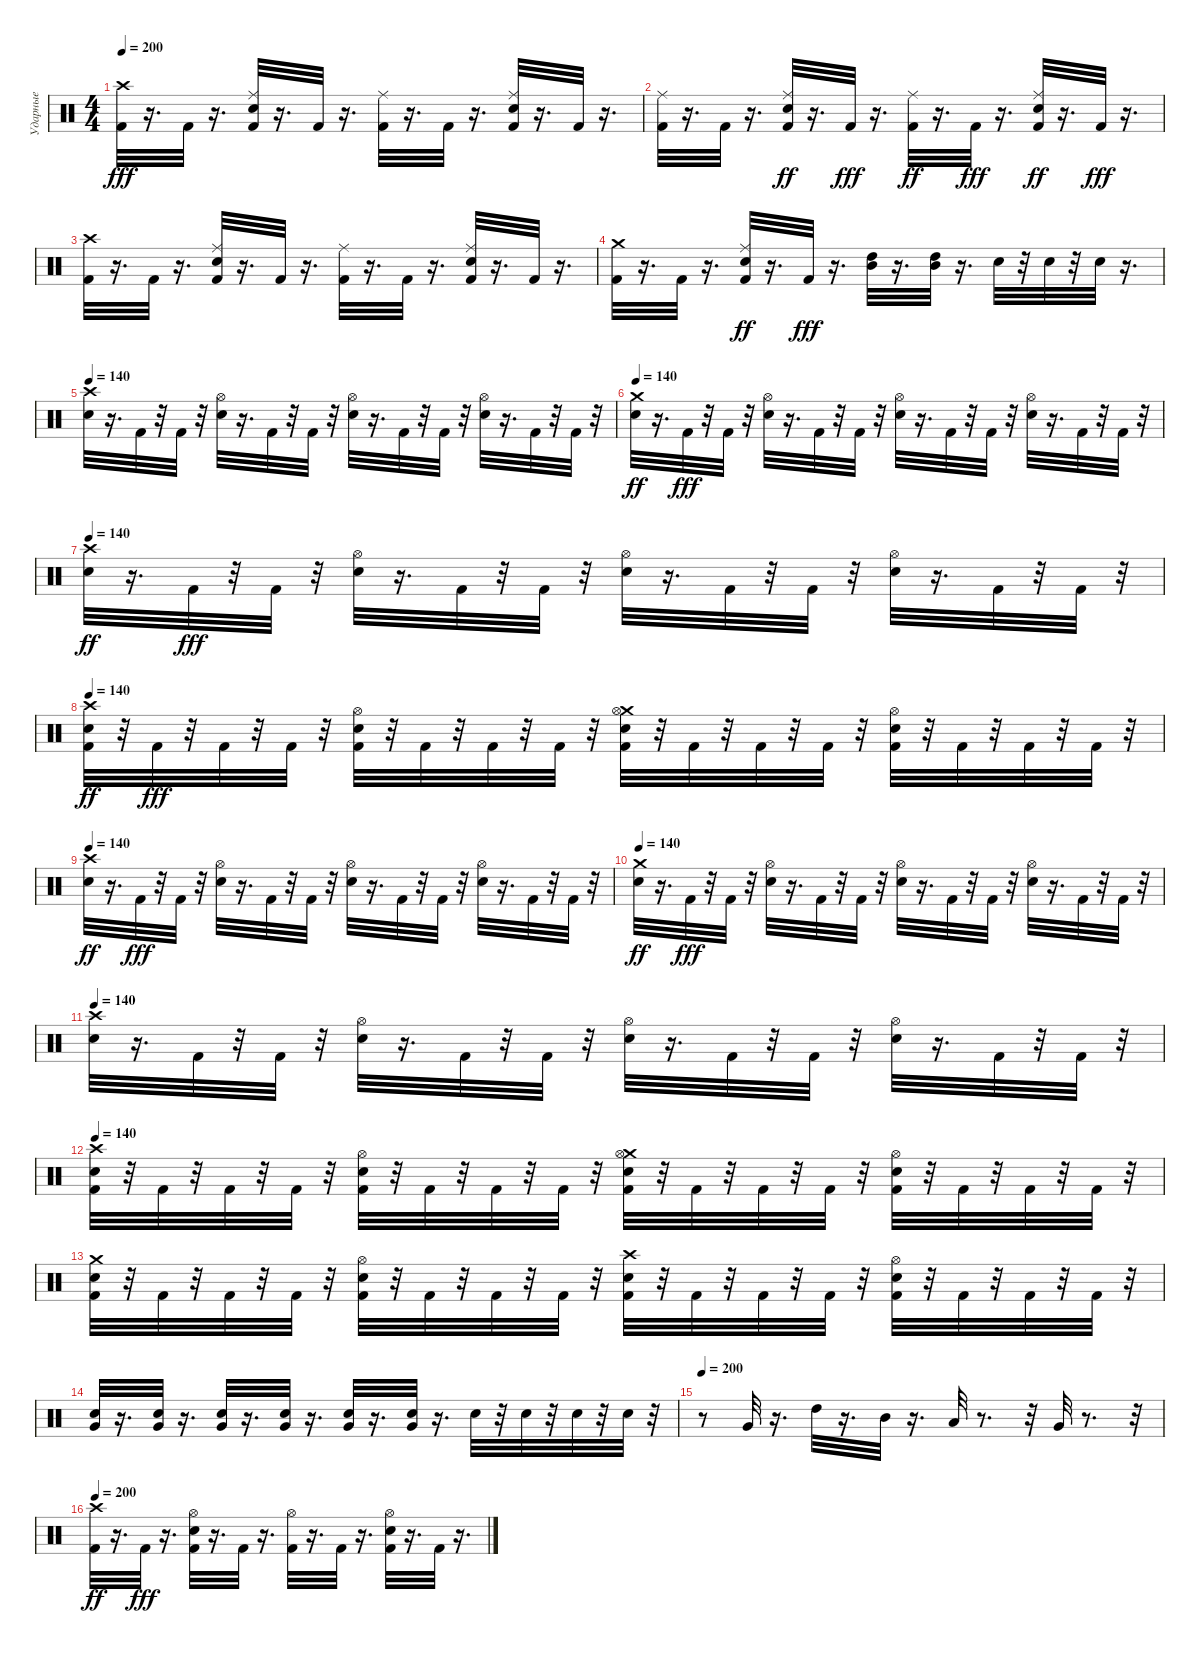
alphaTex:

\track ("Ударные" "Ударные") {instrument percussion}
\staff {score}
\articulation defaults
\ts (4 4)
\tempo 200
\clef neutral
\ks c
("Crash high (hit)" "Kick (hit) 2").32{dy fff} r.16{d} "Kick (hit) 2".32 r.16{d} ("Kick (hit) 2" "Ride (middle)" "Snare (hit) 2").32 r.16{d} "Kick (hit) 2".32 r.16{d} ("Ride (middle)" "Kick (hit) 2").32 r.16{d} "Kick (hit) 2".32 r.16{d} ("Kick (hit) 2" "Ride (middle)" "Snare (hit) 2").32 r.16{d} "Kick (hit) 2".32 r.16{d} |
("Ride (middle)" "Kick (hit) 2").32 r.16{d} "Kick (hit) 2".32 r.16{d} ("Kick (hit) 2" "Snare (hit) 2" "Ride (middle)").32{dy ff} r.16{d} "Kick (hit) 2".32{dy fff} r.16{d} ("Kick (hit) 2" "Ride (middle)").32{dy ff} r.16{d} "Kick (hit) 2".32{dy fff} r.16{d} ("Kick (hit) 2" "Snare (hit) 2" "Ride (middle)").32{dy ff} r.16{d} "Kick (hit) 2".32{dy fff} r.16{d} |
("Crash high (hit)" "Kick (hit) 2").32 r.16{d} "Kick (hit) 2".32 r.16{d} ("Kick (hit) 2" "Ride (middle)" "Snare (hit) 2").32 r.16{d} "Kick (hit) 2".32 r.16{d} ("Ride (middle)" "Kick (hit) 2").32 r.16{d} "Kick (hit) 2".32 r.16{d} ("Kick (hit) 2" "Ride (middle)" "Snare (hit) 2").32 r.16{d} "Kick (hit) 2".32 r.16{d} |
("Crash medium (hit)" "Kick (hit) 2").32 r.16{d} "Kick (hit) 2".32 r.16{d} ("Kick (hit) 2" "Snare (hit) 2" "Ride (middle)").32{dy ff} r.16{d} "Kick (hit) 2".32{dy fff} r.16{d} ("High Tom (hit)" "Mid Tom (hit)").32 r.16{d} ("Mid Tom (hit)" "High Tom (hit)").32 r.16{d} "Snare (hit) 2".32 r.32 "Snare (hit) 2".32 r.32 "Snare (hit) 2".32 r.16{d} |
\tempo 140
("Crash high (hit)" "Snare (hit) 2").32 r.16{d} "Kick (hit) 2".32 r.32 "Kick (hit) 2".32 r.32 ("Hi-Hat (open)" "Snare (hit) 2").32 r.16{d} "Kick (hit) 2".32 r.32 "Kick (hit) 2".32 r.32 ("Snare (hit) 2" "Hi-Hat (open)").32 r.16{d} "Kick (hit) 2".32 r.32 "Kick (hit) 2".32 r.32 ("Snare (hit) 2" "Hi-Hat (open)").32 r.16{d} "Kick (hit) 2".32 r.32 "Kick (hit) 2".32 r.32 |
\tempo 140
("Snare (hit) 2" "Crash medium (hit)").32{dy ff} r.16{d} "Kick (hit) 2".32{dy fff} r.32 "Kick (hit) 2".32 r.32 ("Hi-Hat (open)" "Snare (hit) 2").32 r.16{d} "Kick (hit) 2".32 r.32 "Kick (hit) 2".32 r.32 ("Snare (hit) 2" "Hi-Hat (open)").32 r.16{d} "Kick (hit) 2".32 r.32 "Kick (hit) 2".32 r.32 ("Hi-Hat (open)" "Snare (hit) 2").32 r.16{d} "Kick (hit) 2".32 r.32 "Kick (hit) 2".32 r.32 |
\tempo 140
("Snare (hit) 2" "Crash high (hit)").32{dy ff} r.16{d} "Kick (hit) 2".32{dy fff} r.32 "Kick (hit) 2".32 r.32 ("Hi-Hat (open)" "Snare (hit) 2").32 r.16{d} "Kick (hit) 2".32 r.32 "Kick (hit) 2".32 r.32 ("Snare (hit) 2" "Hi-Hat (open)").32 r.16{d} "Kick (hit) 2".32 r.32 "Kick (hit) 2".32 r.32 ("Hi-Hat (open)" "Snare (hit) 2").32 r.16{d} "Kick (hit) 2".32 r.32 "Kick (hit) 2".32 r.32 |
\tempo 140
("Kick (hit) 2" "Snare (hit) 2" "Crash high (hit)").32{dy ff} r.32 "Kick (hit) 2".32{dy fff} r.32 "Kick (hit) 2".32 r.32 "Kick (hit) 2".32 r.32 ("Hi-Hat (open)" "Snare (hit) 2" "Kick (hit) 2").32 r.32 "Kick (hit) 2".32 r.32 "Kick (hit) 2".32 r.32 "Kick (hit) 2".32 r.32 ("Crash medium (hit)" "Kick (hit) 2" "Hi-Hat (open)" "Snare (hit) 2").32 r.32 "Kick (hit) 2".32 r.32 "Kick (hit) 2".32 r.32 "Kick (hit) 2".32 r.32 ("Kick (hit) 2" "Snare (hit) 2" "Hi-Hat (open)").32 r.32 "Kick (hit) 2".32 r.32 "Kick (hit) 2".32 r.32 "Kick (hit) 2".32 r.32 |
\tempo 140
("Snare (hit) 2" "Crash high (hit)").32{dy ff} r.16{d} "Kick (hit) 2".32{dy fff} r.32 "Kick (hit) 2".32 r.32 ("Hi-Hat (open)" "Snare (hit) 2").32 r.16{d} "Kick (hit) 2".32 r.32 "Kick (hit) 2".32 r.32 ("Snare (hit) 2" "Hi-Hat (open)").32 r.16{d} "Kick (hit) 2".32 r.32 "Kick (hit) 2".32 r.32 ("Hi-Hat (open)" "Snare (hit) 2").32 r.16{d} "Kick (hit) 2".32 r.32 "Kick (hit) 2".32 r.32 |
\tempo 140
("Snare (hit) 2" "Crash medium (hit)").32{dy ff} r.16{d} "Kick (hit) 2".32{dy fff} r.32 "Kick (hit) 2".32 r.32 ("Snare (hit) 2" "Hi-Hat (open)").32 r.16{d} "Kick (hit) 2".32 r.32 "Kick (hit) 2".32 r.32 ("Hi-Hat (open)" "Snare (hit) 2").32 r.16{d} "Kick (hit) 2".32 r.32 "Kick (hit) 2".32 r.32 ("Snare (hit) 2" "Hi-Hat (open)").32 r.16{d} "Kick (hit) 2".32 r.32 "Kick (hit) 2".32 r.32 |
\tempo 140
("Crash high (hit)" "Snare (hit) 2").32 r.16{d} "Kick (hit) 2".32 r.32 "Kick (hit) 2".32 r.32 ("Snare (hit) 2" "Hi-Hat (open)").32 r.16{d} "Kick (hit) 2".32 r.32 "Kick (hit) 2".32 r.32 ("Hi-Hat (open)" "Snare (hit) 2").32 r.16{d} "Kick (hit) 2".32 r.32 "Kick (hit) 2".32 r.32 ("Hi-Hat (open)" "Snare (hit) 2").32 r.16{d} "Kick (hit) 2".32 r.32 "Kick (hit) 2".32 r.32 |
\tempo 140
("Kick (hit) 2" "Crash high (hit)" "Snare (hit) 2").32 r.32 "Kick (hit) 2".32 r.32 "Kick (hit) 2".32 r.32 "Kick (hit) 2".32 r.32 ("Hi-Hat (open)" "Kick (hit) 2" "Snare (hit) 2").32 r.32 "Kick (hit) 2".32 r.32 "Kick (hit) 2".32 r.32 "Kick (hit) 2".32 r.32 ("Snare (hit) 2" "Crash medium (hit)" "Kick (hit) 2" "Hi-Hat (open)").32 r.32 "Kick (hit) 2".32 r.32 "Kick (hit) 2".32 r.32 "Kick (hit) 2".32 r.32 ("Kick (hit) 2" "Snare (hit) 2" "Hi-Hat (open)").32 r.32 "Kick (hit) 2".32 r.32 "Kick (hit) 2".32 r.32 "Kick (hit) 2".32 r.32 |
("Crash medium (hit)" "Snare (hit) 2" "Kick (hit) 2").32 r.32 "Kick (hit) 2".32 r.32 "Kick (hit) 2".32 r.32 "Kick (hit) 2".32 r.32 ("Kick (hit) 2" "Snare (hit) 2" "Hi-Hat (open)").32 r.32 "Kick (hit) 2".32 r.32 "Kick (hit) 2".32 r.32 "Kick (hit) 2".32 r.32 ("Kick (hit) 2" "Crash high (hit)" "Snare (hit) 2").32 r.32 "Kick (hit) 2".32 r.32 "Kick (hit) 2".32 r.32 "Kick (hit) 2".32 r.32 ("Hi-Hat (open)" "Kick (hit) 2" "Snare (hit) 2").32 r.32 "Kick (hit) 2".32 r.32 "Kick (hit) 2".32 r.32 "Kick (hit) 2".32 r.32 |
("Snare (hit) 2" "Very Low Tom (hit)").32 r.16{d} ("Very Low Tom (hit)" "Snare (hit) 2").32 r.16{d} ("Snare (hit) 2" "Very Low Tom (hit)").32 r.16{d} ("Snare (hit) 2" "Very Low Tom (hit)").32 r.16{d} ("Very Low Tom (hit)" "Snare (hit) 2").32 r.16{d} ("Very Low Tom (hit)" "Snare (hit) 2").32 r.16{d} "Snare (hit) 2".32 r.32 "Snare (hit) 2".32 r.32 "Snare (hit) 2".32 r.32 "Snare (hit) 2".32 r.32 |
\tempo 200
r.8 "Very Low Tom (hit)".32 r.16{d} "High Tom (hit)".32 r.16{d} "Mid Tom (hit)".32 r.16{d} "Low Tom (hit)".32 r.8{d} r.32 "Very Low Tom (hit)".32 r.8{d} r.32 |
\tempo 200
("Kick (hit) 2" "Crash high (hit)").32{dy ff} r.16{d} "Kick (hit) 2".32{dy fff} r.16{d} ("Kick (hit) 2" "Hi-Hat (open)" "Snare (hit) 2").32 r.16{d} "Kick (hit) 2".32 r.16{d} ("Hi-Hat (open)" "Kick (hit) 2").32 r.16{d} "Kick (hit) 2".32 r.16{d} ("Kick (hit) 2" "Hi-Hat (open)" "Snare (hit) 2").32 r.16{d} "Kick (hit) 2".32 r.16{d}
